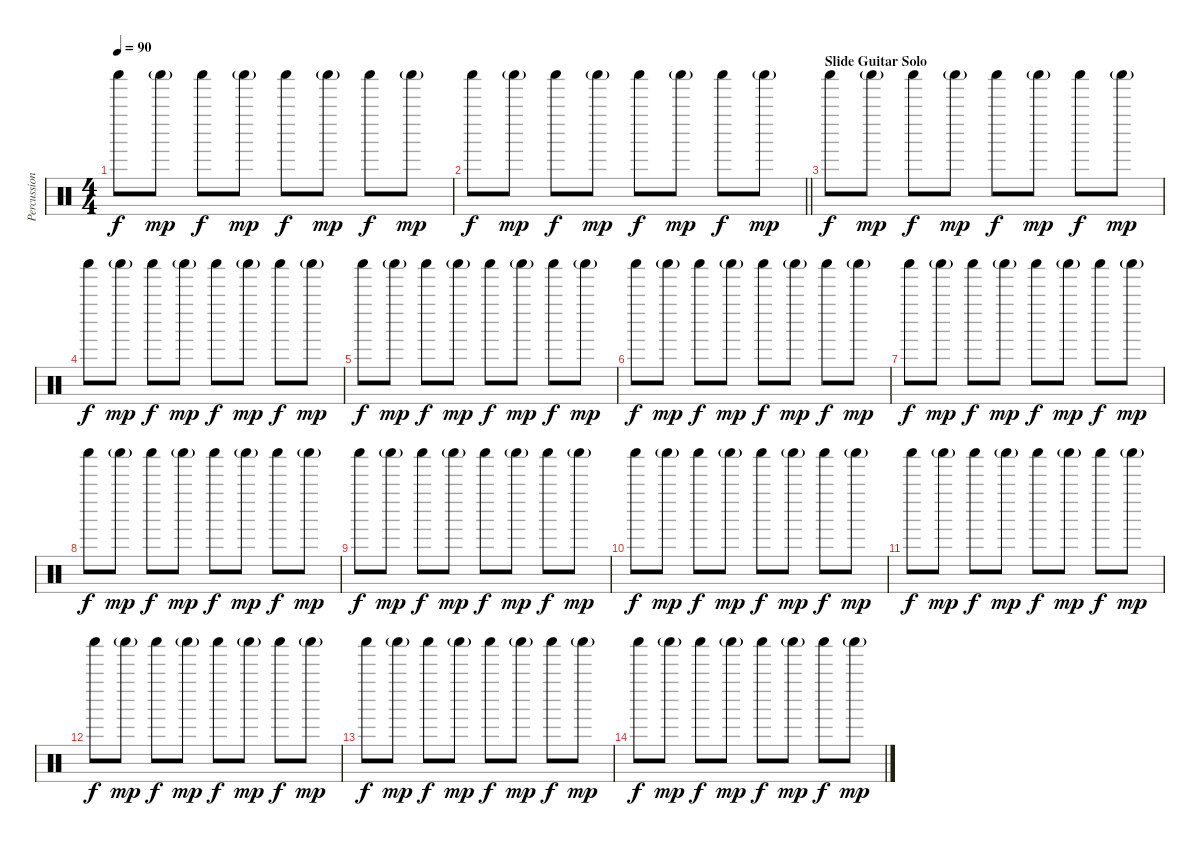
\track ("Percussion 2" "Percussion") {instrument percussion}
\staff {score}
\articulation defaults
\ts (4 4)
\tempo 90
\clef neutral
\ks c "Shaker (hit)".8{dy f} "Shaker (hit)"{g}.8{dy mp} "Shaker (hit)".8{dy f} "Shaker (hit)"{g}.8{dy mp} "Shaker (hit)".8{dy f} "Shaker (hit)"{g}.8{dy mp} "Shaker (hit)".8{dy f} "Shaker (hit)"{g}.8{dy mp}
|
\barLineRight lightlight "Shaker (hit)".8{dy f} "Shaker (hit)"{g}.8{dy mp} "Shaker (hit)".8{dy f} "Shaker (hit)"{g}.8{dy mp} "Shaker (hit)".8{dy f} "Shaker (hit)"{g}.8{dy mp} "Shaker (hit)".8{dy f} "Shaker (hit)"{g}.8{dy mp}
|
\section ("" "Slide Guitar Solo")
"Shaker (hit)".8{dy f} "Shaker (hit)"{g}.8{dy mp} "Shaker (hit)".8{dy f} "Shaker (hit)"{g}.8{dy mp} "Shaker (hit)".8{dy f} "Shaker (hit)"{g}.8{dy mp} "Shaker (hit)".8{dy f} "Shaker (hit)"{g}.8{dy mp} |
"Shaker (hit)".8{dy f} "Shaker (hit)"{g}.8{dy mp} "Shaker (hit)".8{dy f} "Shaker (hit)"{g}.8{dy mp} "Shaker (hit)".8{dy f} "Shaker (hit)"{g}.8{dy mp} "Shaker (hit)".8{dy f} "Shaker (hit)"{g}.8{dy mp} |
"Shaker (hit)".8{dy f} "Shaker (hit)"{g}.8{dy mp} "Shaker (hit)".8{dy f} "Shaker (hit)"{g}.8{dy mp} "Shaker (hit)".8{dy f} "Shaker (hit)"{g}.8{dy mp} "Shaker (hit)".8{dy f} "Shaker (hit)"{g}.8{dy mp} |
"Shaker (hit)".8{dy f} "Shaker (hit)"{g}.8{dy mp} "Shaker (hit)".8{dy f} "Shaker (hit)"{g}.8{dy mp} "Shaker (hit)".8{dy f} "Shaker (hit)"{g}.8{dy mp} "Shaker (hit)".8{dy f} "Shaker (hit)"{g}.8{dy mp} |
"Shaker (hit)".8{dy f} "Shaker (hit)"{g}.8{dy mp} "Shaker (hit)".8{dy f} "Shaker (hit)"{g}.8{dy mp} "Shaker (hit)".8{dy f} "Shaker (hit)"{g}.8{dy mp} "Shaker (hit)".8{dy f} "Shaker (hit)"{g}.8{dy mp} |
"Shaker (hit)".8{dy f} "Shaker (hit)"{g}.8{dy mp} "Shaker (hit)".8{dy f} "Shaker (hit)"{g}.8{dy mp} "Shaker (hit)".8{dy f} "Shaker (hit)"{g}.8{dy mp} "Shaker (hit)".8{dy f} "Shaker (hit)"{g}.8{dy mp} |
"Shaker (hit)".8{dy f} "Shaker (hit)"{g}.8{dy mp} "Shaker (hit)".8{dy f} "Shaker (hit)"{g}.8{dy mp} "Shaker (hit)".8{dy f} "Shaker (hit)"{g}.8{dy mp} "Shaker (hit)".8{dy f} "Shaker (hit)"{g}.8{dy mp} |
"Shaker (hit)".8{dy f} "Shaker (hit)"{g}.8{dy mp} "Shaker (hit)".8{dy f} "Shaker (hit)"{g}.8{dy mp} "Shaker (hit)".8{dy f} "Shaker (hit)"{g}.8{dy mp} "Shaker (hit)".8{dy f} "Shaker (hit)"{g}.8{dy mp} |
"Shaker (hit)".8{dy f} "Shaker (hit)"{g}.8{dy mp} "Shaker (hit)".8{dy f} "Shaker (hit)"{g}.8{dy mp} "Shaker (hit)".8{dy f} "Shaker (hit)"{g}.8{dy mp} "Shaker (hit)".8{dy f} "Shaker (hit)"{g}.8{dy mp} |
"Shaker (hit)".8{dy f} "Shaker (hit)"{g}.8{dy mp} "Shaker (hit)".8{dy f} "Shaker (hit)"{g}.8{dy mp} "Shaker (hit)".8{dy f} "Shaker (hit)"{g}.8{dy mp} "Shaker (hit)".8{dy f} "Shaker (hit)"{g}.8{dy mp} |
"Shaker (hit)".8{dy f} "Shaker (hit)"{g}.8{dy mp} "Shaker (hit)".8{dy f} "Shaker (hit)"{g}.8{dy mp} "Shaker (hit)".8{dy f} "Shaker (hit)"{g}.8{dy mp} "Shaker (hit)".8{dy f} "Shaker (hit)"{g}.8{dy mp} |
"Shaker (hit)".8{dy f} "Shaker (hit)"{g}.8{dy mp} "Shaker (hit)".8{dy f} "Shaker (hit)"{g}.8{dy mp} "Shaker (hit)".8{dy f} "Shaker (hit)"{g}.8{dy mp} "Shaker (hit)".8{dy f} "Shaker (hit)"{g}.8{dy mp}
